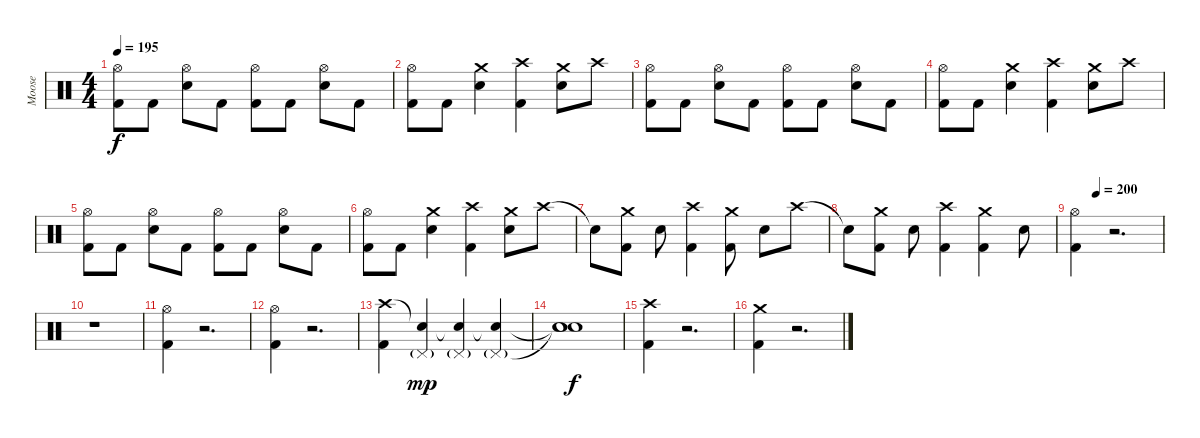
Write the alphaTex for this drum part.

\track ("Moose" "Moose") {instrument percussion}
\staff {score}
\articulation defaults
\ts (4 4)
\tempo 195
\clef neutral
\ks c
("Hi-Hat (open)" "Kick (hit) 2").8{dy f} "Kick (hit) 2".8 ("Hi-Hat (open)" "Snare (hit) 2").8 "Kick (hit) 2".8 ("Hi-Hat (open)" "Kick (hit) 2").8 "Kick (hit) 2".8 ("Hi-Hat (open)" "Snare (hit) 2").8 "Kick (hit) 2".8 |
("Hi-Hat (open)" "Kick (hit) 2").8 "Kick (hit) 2".8 ("Crash medium (hit)" "Snare (hit) 2").4 ("Crash high (hit)" "Kick (hit) 2").4 ("Crash medium (hit)" "Snare (hit) 2").8 "Crash high (hit)".8 |
("Hi-Hat (open)" "Kick (hit) 2").8 "Kick (hit) 2".8 ("Hi-Hat (open)" "Snare (hit) 2").8 "Kick (hit) 2".8 ("Hi-Hat (open)" "Kick (hit) 2").8 "Kick (hit) 2".8 ("Hi-Hat (open)" "Snare (hit) 2").8 "Kick (hit) 2".8 |
("Hi-Hat (open)" "Kick (hit) 2").8 "Kick (hit) 2".8 ("Crash medium (hit)" "Snare (hit) 2").4 ("Crash high (hit)" "Kick (hit) 2").4 ("Crash medium (hit)" "Snare (hit) 2").8 "Crash high (hit)".8 |
("Hi-Hat (open)" "Kick (hit) 2").8 "Kick (hit) 2".8 ("Hi-Hat (open)" "Snare (hit) 2").8 "Kick (hit) 2".8 ("Hi-Hat (open)" "Kick (hit) 2").8 "Kick (hit) 2".8 ("Hi-Hat (open)" "Snare (hit) 2").8 "Kick (hit) 2".8 |
("Hi-Hat (open)" "Kick (hit) 2").8 "Kick (hit) 2".8 ("Crash medium (hit)" "Snare (hit) 2").4 ("Crash high (hit)" "Kick (hit) 2").4 ("Crash medium (hit)" "Snare (hit) 2").8 "Crash high (hit)".8 |
"Snare (hit)"{t}.8 ("Crash medium (hit)" "Kick (hit) 2").8 "Snare (hit) 2".8 ("Crash high (hit)" "Kick (hit) 2").4 ("Crash medium (hit)" "Kick (hit) 2").8 "Snare (hit) 2".8 "Crash high (hit)".8 |
"Snare (hit)"{t}.8 ("Crash medium (hit)" "Kick (hit) 2").8 "Snare (hit) 2".8 ("Crash high (hit)" "Kick (hit) 2").4 ("Crash medium (hit)" "Kick (hit) 2").4 "Snare (hit) 2".8 |
\tempo (200 0.25)
("Hi-Hat (open)" "Kick (hit) 2").4 r.2{d} |
r.1 |
("Hi-Hat (open)" "Kick (hit) 2").4 r.2{d} |
("Hi-Hat (open)" "Kick (hit) 2").4 r.2{d} |
("Crash high (hit)" "Kick (hit) 2").4 ("Snare (hit)"{t} "Pedal Hi-Hat (hit)"{g}).4{dy mp} ("Snare (hit)"{t} "Pedal Hi-Hat (hit)"{g}).4 ("Snare (hit)"{t} "Pedal Hi-Hat (hit)"{g}).4 |
("Snare (hit)"{t} "Snare (hit)"{t} "Snare (hit)").1{dy f} |
("Crash high (hit)" "Kick (hit) 2").4 r.2{d} |
("Crash medium (hit)" "Kick (hit) 2").4 r.2{d}
